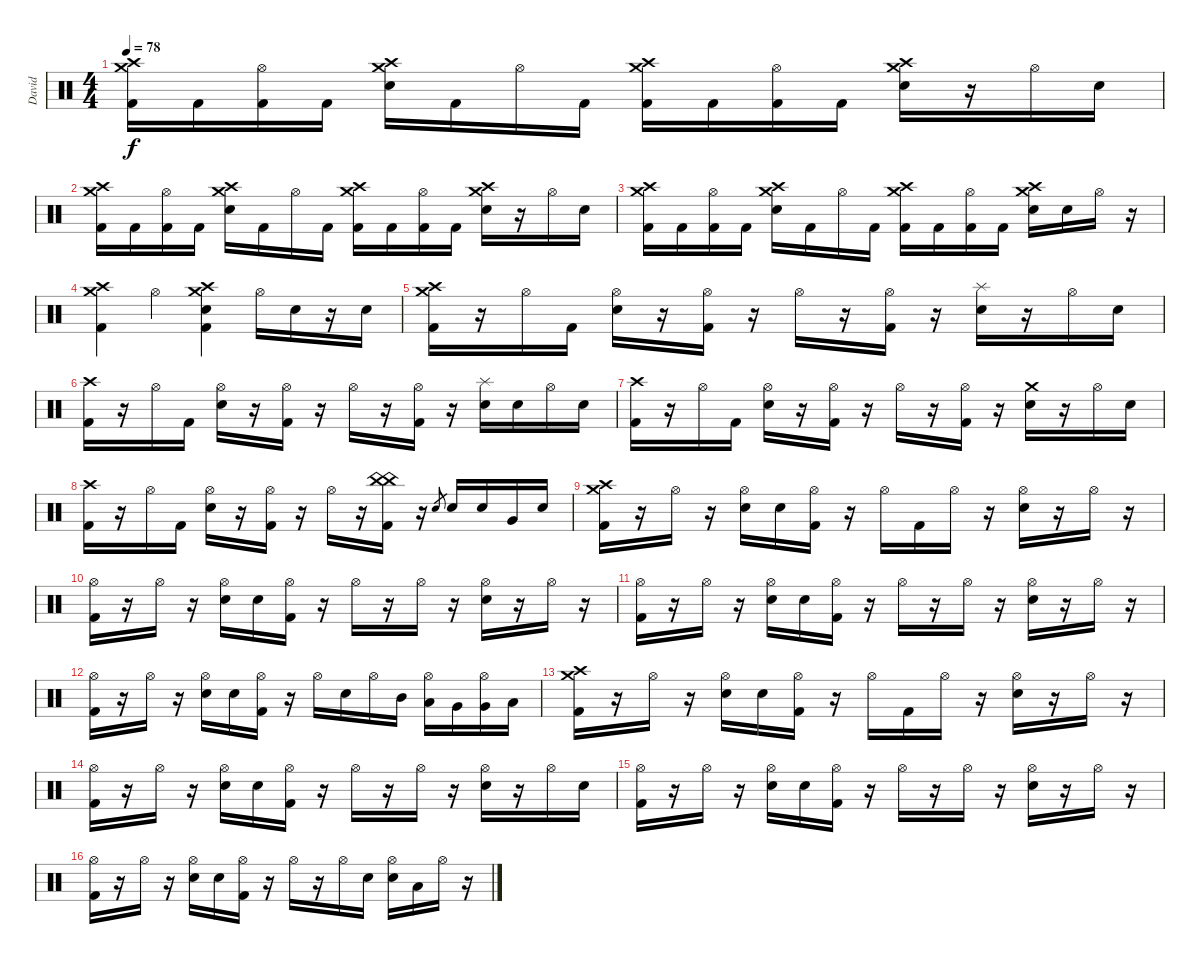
\track ("David" "David") {instrument percussion}
\staff {score}
\articulation defaults
\ts (4 4)
\tempo 78
\clef neutral
\ks c
("Crash high (hit)" "Crash medium (hit)" "Kick (hit) 2").16{dy f} "Kick (hit) 2".16 ("Hi-Hat (open)" "Kick (hit) 2").16 "Kick (hit) 2".16 ("Crash high (hit)" "Crash medium (hit)" "Snare (hit) 2").16 "Kick (hit) 2".16 "Hi-Hat (open)".16 "Kick (hit) 2".16 ("Crash high (hit)" "Crash medium (hit)" "Kick (hit) 2").16 "Kick (hit) 2".16 ("Hi-Hat (open)" "Kick (hit) 2").16 "Kick (hit) 2".16 ("Crash high (hit)" "Crash medium (hit)" "Snare (hit) 2").16 r.16 "Hi-Hat (open)".16 "Snare (hit) 2".16 |
("Crash high (hit)" "Crash medium (hit)" "Kick (hit) 2").16 "Kick (hit) 2".16 ("Hi-Hat (open)" "Kick (hit) 2").16 "Kick (hit) 2".16 ("Crash high (hit)" "Crash medium (hit)" "Snare (hit) 2").16 "Kick (hit) 2".16 "Hi-Hat (open)".16 "Kick (hit) 2".16 ("Crash high (hit)" "Crash medium (hit)" "Kick (hit) 2").16 "Kick (hit) 2".16 ("Hi-Hat (open)" "Kick (hit) 2").16 "Kick (hit) 2".16 ("Crash high (hit)" "Crash medium (hit)" "Snare (hit) 2").16 r.16 "Hi-Hat (open)".16 "Snare (hit) 2".16 |
("Crash high (hit)" "Crash medium (hit)" "Kick (hit) 2").16 "Kick (hit) 2".16 ("Hi-Hat (open)" "Kick (hit) 2").16 "Kick (hit) 2".16 ("Crash high (hit)" "Crash medium (hit)" "Snare (hit) 2").16 "Kick (hit) 2".16 "Hi-Hat (open)".16 "Kick (hit) 2".16 ("Crash high (hit)" "Crash medium (hit)" "Kick (hit) 2").16 "Kick (hit) 2".16 ("Hi-Hat (open)" "Kick (hit) 2").16 "Kick (hit) 2".16 ("Crash high (hit)" "Crash medium (hit)" "Snare (hit) 2").16 "Snare (hit) 2".16 "Hi-Hat (open)".16 r.16 |
("Crash high (hit)" "Crash medium (hit)" "Kick (hit) 2").4 "Hi-Hat (open)".4 ("Crash high (hit)" "Crash medium (hit)" "Snare (hit) 2" "Kick (hit) 2").4 "Hi-Hat (open)".16 "Snare (hit) 2".16 r.16 "Snare (hit) 2".16 |
("Crash high (hit)" "Crash medium (hit)" "Kick (hit) 2").16 r.16 "Hi-Hat (open)".16 "Kick (hit) 2".16 ("Hi-Hat (open)" "Snare (hit) 2").16 r.16 ("Hi-Hat (open)" "Kick (hit) 2").16 r.16 "Hi-Hat (open)".16 r.16 ("Hi-Hat (open)" "Kick (hit) 2").16 r.16 ("Splash (hit)" "Snare (hit) 2").16 r.16 "Hi-Hat (open)".16 "Snare (hit) 2".16 |
("Crash high (hit)" "Kick (hit) 2").16 r.16 "Hi-Hat (open)".16 "Kick (hit) 2".16 ("Hi-Hat (open)" "Snare (hit) 2").16 r.16 ("Hi-Hat (open)" "Kick (hit) 2").16 r.16 "Hi-Hat (open)".16 r.16 ("Hi-Hat (open)" "Kick (hit) 2").16 r.16 ("Splash (hit)" "Snare (hit) 2").16 "Snare (hit) 2".16 "Hi-Hat (open)".16 "Snare (hit) 2".16 |
("Crash high (hit)" "Kick (hit) 2").16 r.16 "Hi-Hat (open)".16 "Kick (hit) 2".16 ("Hi-Hat (open)" "Snare (hit) 2").16 r.16 ("Hi-Hat (open)" "Kick (hit) 2").16 r.16 "Hi-Hat (open)".16 r.16 ("Hi-Hat (open)" "Kick (hit) 2").16 r.16 ("Crash medium (hit)" "Snare (hit) 2").16 r.16 "Hi-Hat (open)".16 "Snare (hit) 2".16 |
("Crash high (hit)" "Kick (hit) 2").16 r.16 "Hi-Hat (open)".16 "Kick (hit) 2".16 ("Hi-Hat (open)" "Snare (hit) 2").16 r.16 ("Hi-Hat (open)" "Kick (hit) 2").16 r.16 "Hi-Hat (open)".16 r.16 ("China (hit)" "China (hit)" "Kick (hit) 2").16 r.16 "Snare (hit) 2".8{gr} "Snare (hit) 2".16 "Snare (hit) 2".16 "Very Low Tom (hit)".16 "Snare (hit) 2"{x}.16 |
("Crash high (hit)" "Crash medium (hit)" "Kick (hit) 2").16 r.16 "Hi-Hat (open)".16 r.16 ("Hi-Hat (open)" "Snare (hit) 2").16 "Snare (hit) 2".16 ("Hi-Hat (open)" "Kick (hit) 2").16 r.16 "Hi-Hat (open)".16 "Kick (hit) 2".16 "Hi-Hat (open)".16 r.16 ("Hi-Hat (open)" "Snare (hit) 2").16 r.16 "Hi-Hat (open)".16 r.16 |
("Hi-Hat (open)" "Kick (hit) 2").16 r.16 "Hi-Hat (open)".16 r.16 ("Hi-Hat (open)" "Snare (hit) 2").16 "Snare (hit) 2".16 ("Hi-Hat (open)" "Kick (hit) 2").16 r.16 "Hi-Hat (open)".16 r.16 "Hi-Hat (open)".16 r.16 ("Hi-Hat (open)" "Snare (hit) 2").16 r.16 "Hi-Hat (open)".16 r.16 |
("Hi-Hat (open)" "Kick (hit) 2").16 r.16 "Hi-Hat (open)".16 r.16 ("Hi-Hat (open)" "Snare (hit) 2").16 "Snare (hit) 2".16 ("Hi-Hat (open)" "Kick (hit) 2").16 r.16 "Hi-Hat (open)".16 r.16 "Hi-Hat (open)".16 r.16 ("Hi-Hat (open)" "Snare (hit) 2").16 r.16 "Hi-Hat (open)".16 r.16 |
("Hi-Hat (open)" "Kick (hit) 2").16 r.16 "Hi-Hat (open)".16 r.16 ("Hi-Hat (open)" "Snare (hit) 2").16 "Snare (hit) 2".16 ("Hi-Hat (open)" "Kick (hit) 2").16 r.16 "Hi-Hat (open)".16 "Snare (hit) 2".16 "Hi-Hat (open)".16 "Mid Tom (hit)".16 ("Hi-Hat (open)" "Low Tom (hit)").16 "Very Low Tom (hit)".16 ("Hi-Hat (open)" "Very Low Tom (hit)").16 "Low Floor Tom (hit)".16 |
("Crash high (hit)" "Crash medium (hit)" "Kick (hit) 2").16 r.16 "Hi-Hat (open)".16 r.16 ("Hi-Hat (open)" "Snare (hit) 2").16 "Snare (hit) 2".16 ("Hi-Hat (open)" "Kick (hit) 2").16 r.16 "Hi-Hat (open)".16 "Kick (hit) 2".16 "Hi-Hat (open)".16 r.16 ("Hi-Hat (open)" "Snare (hit) 2").16 r.16 "Hi-Hat (open)".16 r.16 |
("Hi-Hat (open)" "Kick (hit) 2").16 r.16 "Hi-Hat (open)".16 r.16 ("Hi-Hat (open)" "Snare (hit) 2").16 "Snare (hit) 2".16 ("Hi-Hat (open)" "Kick (hit) 2").16 r.16 "Hi-Hat (open)".16 r.16 "Hi-Hat (open)".16 r.16 ("Hi-Hat (open)" "Snare (hit) 2").16 r.16 "Hi-Hat (open)".16 "Snare (hit) 2".16 |
("Hi-Hat (open)" "Kick (hit) 2").16 r.16 "Hi-Hat (open)".16 r.16 ("Hi-Hat (open)" "Snare (hit) 2").16 "Snare (hit) 2".16 ("Hi-Hat (open)" "Kick (hit) 2").16 r.16 "Hi-Hat (open)".16 r.16 "Hi-Hat (open)".16 r.16 ("Hi-Hat (open)" "Snare (hit) 2").16 r.16 "Hi-Hat (open)".16 r.16 |
("Hi-Hat (open)" "Kick (hit) 2").16 r.16 "Hi-Hat (open)".16 r.16 ("Hi-Hat (open)" "Snare (hit) 2").16 "Snare (hit) 2".16 ("Hi-Hat (open)" "Kick (hit) 2").16 r.16 "Hi-Hat (open)".16 r.16 "Hi-Hat (open)".16 "Snare (hit) 2".16 ("Hi-Hat (open)" "Snare (hit) 2").16 "Low Tom (hit)".16 "Hi-Hat (open)".16 r.16
